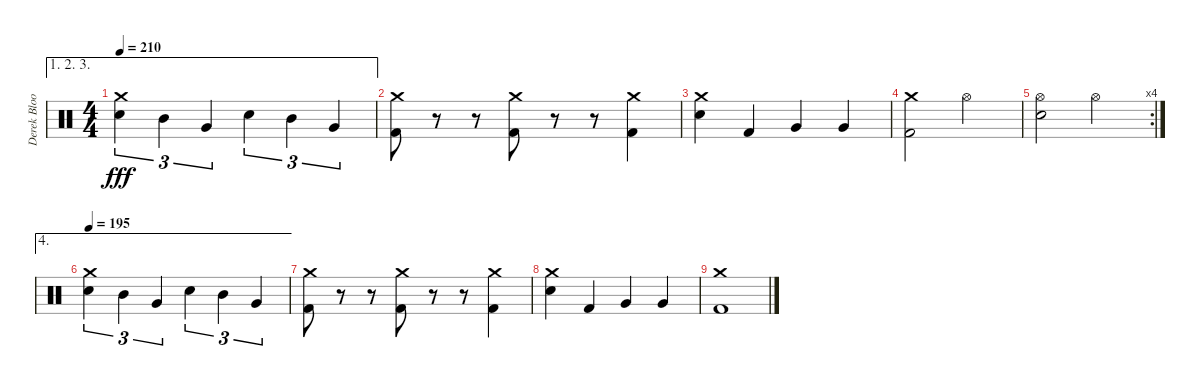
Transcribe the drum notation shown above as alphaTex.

\track ("Derek Bloom" "Derek Bloo") {instrument percussion}
\staff {score}
\articulation defaults
\ae (1 2 3)
\ts (4 4)
\tempo 210
\clef neutral
\ks c
("Crash medium (hit)" "Electric Snare (hit)").4{tu (3 2) dy fff} "Mid Tom (hit)".4{tu (3 2)} "Very Low Tom (hit)".4{tu (3 2)} "Electric Snare (hit)".4{tu (3 2)} "Mid Tom (hit)".4{tu (3 2)} "Very Low Tom (hit)".4{tu (3 2)} |
("Crash medium (hit)" "Kick (hit) 2").8 r.8 r.8 ("Crash medium (hit)" "Kick (hit) 2").8 r.8 r.8 ("Crash medium (hit)" "Kick (hit) 2").4 |
("Crash medium (hit)" "Electric Snare (hit)").4 "Kick (hit) 2".4 "Very Low Tom (hit)".4 "Very Low Tom (hit)".4 |
("Crash medium (hit)" "Kick (hit) 2").2 "Hi-Hat (open)".2 |
\rc 4
("Hi-Hat (open)" "Electric Snare (hit)").2 "Hi-Hat (open)".2 |
\ae 4
\tempo 195
("Crash medium (hit)" "Electric Snare (hit)").4{tu (3 2)} "Mid Tom (hit)".4{tu (3 2)} "Very Low Tom (hit)".4{tu (3 2)} "Electric Snare (hit)".4{tu (3 2)} "Mid Tom (hit)".4{tu (3 2)} "Very Low Tom (hit)".4{tu (3 2)} |
("Crash medium (hit)" "Kick (hit) 2").8 r.8 r.8 ("Crash medium (hit)" "Kick (hit) 2").8 r.8 r.8 ("Crash medium (hit)" "Kick (hit) 2").4 |
("Crash medium (hit)" "Electric Snare (hit)").4 "Kick (hit) 2".4 "Very Low Tom (hit)".4 "Very Low Tom (hit)".4 |
("Crash medium (hit)" "Kick (hit) 2").1
